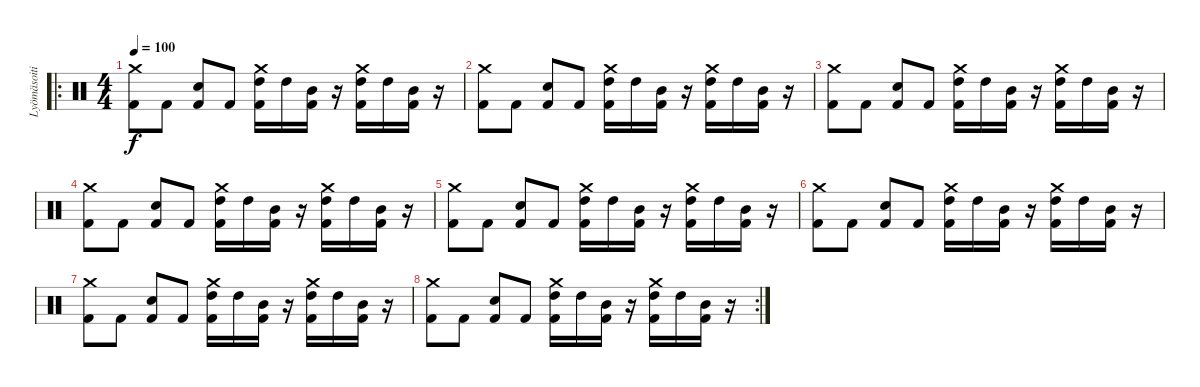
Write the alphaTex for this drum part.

\track ("Lyömäsoitin" "Lyömäsoiti") {instrument percussion}
\staff {score}
\articulation defaults
\ro
\ts (4 4)
\tempo 100
\clef neutral
\ks c
("Crash medium (hit)" "Kick (hit) 2").8{dy f} "Kick (hit) 2".8 ("Snare (hit) 2" "Kick (hit) 2").8 "Kick (hit) 2".8 ("Crash medium (hit)" "High Tom (hit)" "Kick (hit) 2").16 "High Tom (hit)".16 ("Mid Tom (hit)" "Kick (hit) 2").16 r.16 ("Crash medium (hit)" "High Tom (hit)" "Kick (hit) 2").16 "High Tom (hit)".16 ("Mid Tom (hit)" "Kick (hit) 2").16 r.16 |
("Crash medium (hit)" "Kick (hit) 2").8 "Kick (hit) 2".8 ("Snare (hit) 2" "Kick (hit) 2").8 "Kick (hit) 2".8 ("Crash medium (hit)" "High Tom (hit)" "Kick (hit) 2").16 "High Tom (hit)".16 ("Mid Tom (hit)" "Kick (hit) 2").16 r.16 ("Crash medium (hit)" "High Tom (hit)" "Kick (hit) 2").16 "High Tom (hit)".16 ("Mid Tom (hit)" "Kick (hit) 2").16 r.16 |
("Crash medium (hit)" "Kick (hit) 2").8 "Kick (hit) 2".8 ("Snare (hit) 2" "Kick (hit) 2").8 "Kick (hit) 2".8 ("Crash medium (hit)" "High Tom (hit)" "Kick (hit) 2").16 "High Tom (hit)".16 ("Mid Tom (hit)" "Kick (hit) 2").16 r.16 ("Crash medium (hit)" "High Tom (hit)" "Kick (hit) 2").16 "High Tom (hit)".16 ("Mid Tom (hit)" "Kick (hit) 2").16 r.16 |
("Crash medium (hit)" "Kick (hit) 2").8 "Kick (hit) 2".8 ("Snare (hit) 2" "Kick (hit) 2").8 "Kick (hit) 2".8 ("Crash medium (hit)" "High Tom (hit)" "Kick (hit) 2").16 "High Tom (hit)".16 ("Mid Tom (hit)" "Kick (hit) 2").16 r.16 ("Crash medium (hit)" "High Tom (hit)" "Kick (hit) 2").16 "High Tom (hit)".16 ("Mid Tom (hit)" "Kick (hit) 2").16 r.16 |
("Crash medium (hit)" "Kick (hit) 2").8 "Kick (hit) 2".8 ("Snare (hit) 2" "Kick (hit) 2").8 "Kick (hit) 2".8 ("Crash medium (hit)" "High Tom (hit)" "Kick (hit) 2").16 "High Tom (hit)".16 ("Mid Tom (hit)" "Kick (hit) 2").16 r.16 ("Crash medium (hit)" "High Tom (hit)" "Kick (hit) 2").16 "High Tom (hit)".16 ("Mid Tom (hit)" "Kick (hit) 2").16 r.16 |
("Crash medium (hit)" "Kick (hit) 2").8 "Kick (hit) 2".8 ("Snare (hit) 2" "Kick (hit) 2").8 "Kick (hit) 2".8 ("Crash medium (hit)" "High Tom (hit)" "Kick (hit) 2").16 "High Tom (hit)".16 ("Mid Tom (hit)" "Kick (hit) 2").16 r.16 ("Crash medium (hit)" "High Tom (hit)" "Kick (hit) 2").16 "High Tom (hit)".16 ("Mid Tom (hit)" "Kick (hit) 2").16 r.16 |
("Crash medium (hit)" "Kick (hit) 2").8 "Kick (hit) 2".8 ("Snare (hit) 2" "Kick (hit) 2").8 "Kick (hit) 2".8 ("Crash medium (hit)" "High Tom (hit)" "Kick (hit) 2").16 "High Tom (hit)".16 ("Mid Tom (hit)" "Kick (hit) 2").16 r.16 ("Crash medium (hit)" "High Tom (hit)" "Kick (hit) 2").16 "High Tom (hit)".16 ("Mid Tom (hit)" "Kick (hit) 2").16 r.16 |
\rc 2
("Crash medium (hit)" "Kick (hit) 2").8 "Kick (hit) 2".8 ("Snare (hit) 2" "Kick (hit) 2").8 "Kick (hit) 2".8 ("Crash medium (hit)" "High Tom (hit)" "Kick (hit) 2").16 "High Tom (hit)".16 ("Mid Tom (hit)" "Kick (hit) 2").16 r.16 ("Crash medium (hit)" "High Tom (hit)" "Kick (hit) 2").16 "High Tom (hit)".16 ("Mid Tom (hit)" "Kick (hit) 2").16 r.16
